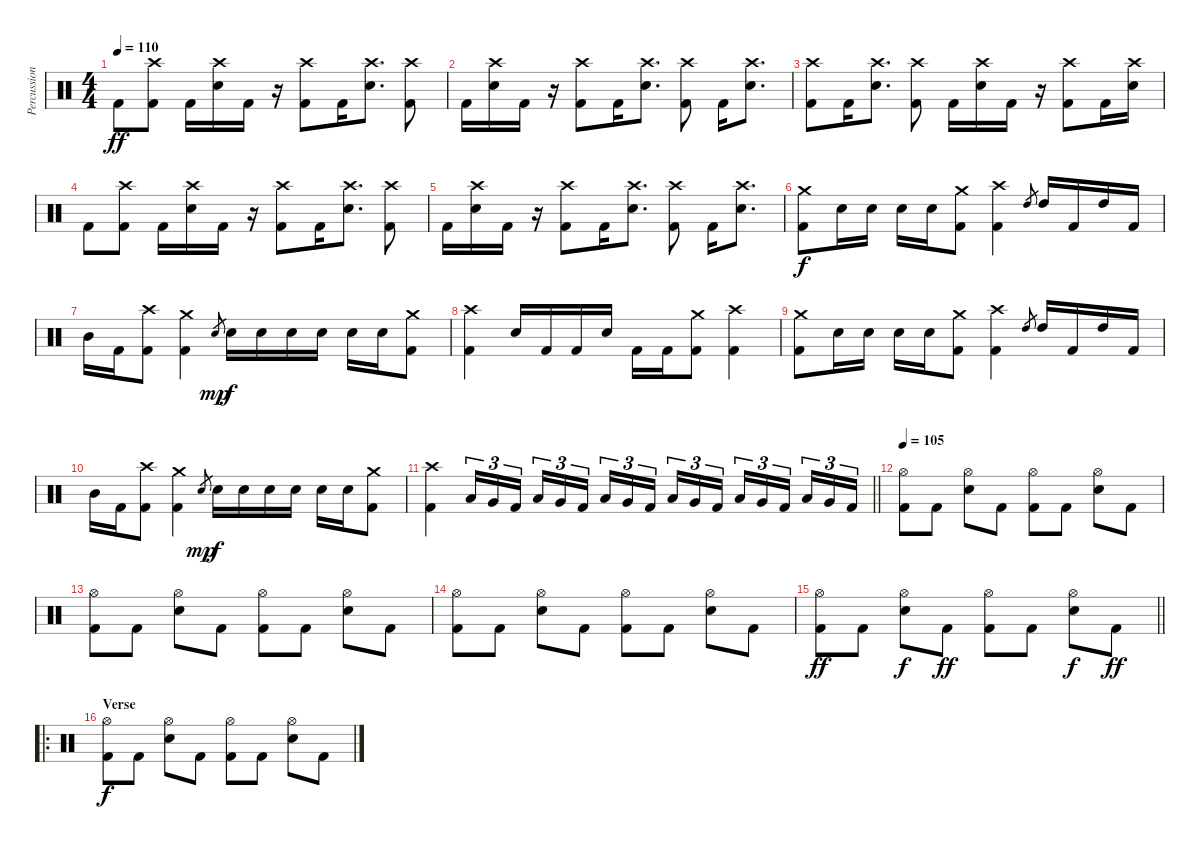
\track ("Percussions" "Percussion") {instrument percussion}
\staff {score}
\articulation defaults
\ts (4 4)
\tempo 110
\clef neutral
\ks c "Kick (hit) 2".8{dy ff}
("Crash high (hit)" "Kick (hit) 2").8 "Kick (hit) 2".16 ("Crash high (hit)" "Electric Snare (hit)").16 "Kick (hit) 2".16 r.16 ("Crash high (hit)" "Kick (hit) 2").8 "Kick (hit) 2".16 ("Crash high (hit)" "Electric Snare (hit)").8{d} ("Crash high (hit)" "Kick (hit) 2").8 |
"Kick (hit) 2".16 ("Crash high (hit)" "Electric Snare (hit)").16 "Kick (hit) 2".16 r.16 ("Crash high (hit)" "Kick (hit) 2").8 "Kick (hit) 2".16 ("Crash high (hit)" "Electric Snare (hit)").8{d} ("Crash high (hit)" "Kick (hit) 2").8 "Kick (hit) 2".16 ("Crash high (hit)" "Electric Snare (hit)").8{d} |
("Crash high (hit)" "Kick (hit) 2").8 "Kick (hit) 2".16 ("Crash high (hit)" "Electric Snare (hit)").8{d} ("Crash high (hit)" "Kick (hit) 2").8 "Kick (hit) 2".16 ("Crash high (hit)" "Electric Snare (hit)").16 "Kick (hit) 2".16 r.16 ("Crash high (hit)" "Kick (hit) 2").8 "Kick (hit) 2".16 ("Crash high (hit)" "Electric Snare (hit)").16 |
"Kick (hit) 2".8 ("Crash high (hit)" "Kick (hit) 2").8 "Kick (hit) 2".16 ("Crash high (hit)" "Electric Snare (hit)").16 "Kick (hit) 2".16 r.16 ("Crash high (hit)" "Kick (hit) 2").8 "Kick (hit) 2".16 ("Crash high (hit)" "Electric Snare (hit)").8{d} ("Crash high (hit)" "Kick (hit) 2").8 |
"Kick (hit) 2".16 ("Crash high (hit)" "Electric Snare (hit)").16 "Kick (hit) 2".16 r.16 ("Crash high (hit)" "Kick (hit) 2").8 "Kick (hit) 2".16 ("Crash high (hit)" "Electric Snare (hit)").8{d} ("Crash high (hit)" "Kick (hit) 2").8 "Kick (hit) 2".16 ("Crash high (hit)" "Electric Snare (hit)").8{d} |
("Crash medium (hit)" "Kick (hit) 2").8{dy f} "Electric Snare (hit)".16 "Electric Snare (hit)".16 "Electric Snare (hit)".16 "Electric Snare (hit)".16 ("Crash medium (hit)" "Kick (hit) 2").8 ("Crash high (hit)" "Kick (hit) 2").4 "High Tom (hit)".8{gr} "High Tom (hit)".16 "Kick (hit) 2".16 "High Tom (hit)".16 "Kick (hit) 2".16 |
"Mid Tom (hit)".16 "Kick (hit) 2".16 ("Crash high (hit)" "Kick (hit) 2").8 ("Crash medium (hit)" "Kick (hit) 2").4 "Electric Snare (hit)".8{gr dy mp} "Electric Snare (hit)".16{dy f} "Electric Snare (hit)".16 "Electric Snare (hit)".16 "Electric Snare (hit)".16 "Electric Snare (hit)".16 "Electric Snare (hit)".16 ("Crash medium (hit)" "Kick (hit) 2").8 |
("Crash high (hit)" "Kick (hit) 2").4 "Electric Snare (hit)".16 "Kick (hit) 2".16 "Kick (hit) 2".16 "Electric Snare (hit)".16 "Kick (hit) 2".16 "Kick (hit) 2".16 ("Crash medium (hit)" "Kick (hit) 2").8 ("Crash high (hit)" "Kick (hit) 2").4 |
("Crash medium (hit)" "Kick (hit) 2").8 "Electric Snare (hit)".16 "Electric Snare (hit)".16 "Electric Snare (hit)".16 "Electric Snare (hit)".16 ("Crash medium (hit)" "Kick (hit) 2").8 ("Crash high (hit)" "Kick (hit) 2").4 "High Tom (hit)".8{gr} "High Tom (hit)".16 "Kick (hit) 2".16 "High Tom (hit)".16 "Kick (hit) 2".16 |
"Mid Tom (hit)".16 "Kick (hit) 2".16 ("Crash high (hit)" "Kick (hit) 2").8 ("Crash medium (hit)" "Kick (hit) 2").4 "Electric Snare (hit)".8{gr dy mp} "Electric Snare (hit)".16{dy f} "Electric Snare (hit)".16 "Electric Snare (hit)".16 "Electric Snare (hit)".16 "Electric Snare (hit)".16 "Electric Snare (hit)".16 ("Crash medium (hit)" "Kick (hit) 2").8 |
\barLineRight lightlight
("Crash high (hit)" "Kick (hit) 2").4 "Low Tom (hit)".16{tu (3 2)} "Very Low Tom (hit)".16{tu (3 2)} "Kick (hit) 2".16{tu (3 2) beam splitsecondary} "Low Tom (hit)".16{tu (3 2)} "Very Low Tom (hit)".16{tu (3 2)} "Kick (hit) 2".16{tu (3 2)} "Low Tom (hit)".16{tu (3 2)} "Very Low Tom (hit)".16{tu (3 2)} "Kick (hit) 2".16{tu (3 2) beam splitsecondary} "Low Tom (hit)".16{tu (3 2)} "Very Low Tom (hit)".16{tu (3 2)} "Kick (hit) 2".16{tu (3 2)} "Low Tom (hit)".16{tu (3 2)} "Very Low Tom (hit)".16{tu (3 2)} "Kick (hit) 2".16{tu (3 2) beam splitsecondary} "Low Tom (hit)".16{tu (3 2)} "Very Low Tom (hit)".16{tu (3 2)} "Kick (hit) 2".16{tu (3 2)} |
\tempo 105
("Hi-Hat (open)" "Kick (hit) 2").8 "Kick (hit) 2".8 ("Hi-Hat (open)" "Electric Snare (hit)").8 "Kick (hit) 2".8 ("Hi-Hat (open)" "Kick (hit) 2").8 "Kick (hit) 2".8 ("Hi-Hat (open)" "Electric Snare (hit)").8 "Kick (hit) 2".8 |
("Hi-Hat (open)" "Kick (hit) 2").8 "Kick (hit) 2".8 ("Hi-Hat (open)" "Electric Snare (hit)").8 "Kick (hit) 2".8 ("Hi-Hat (open)" "Kick (hit) 2").8 "Kick (hit) 2".8 ("Hi-Hat (open)" "Electric Snare (hit)").8 "Kick (hit) 2".8 |
("Hi-Hat (open)" "Kick (hit) 2").8 "Kick (hit) 2".8 ("Hi-Hat (open)" "Electric Snare (hit)").8 "Kick (hit) 2".8 ("Hi-Hat (open)" "Kick (hit) 2").8 "Kick (hit) 2".8 ("Hi-Hat (open)" "Electric Snare (hit)").8 "Kick (hit) 2".8 |
\barLineRight lightlight
("Hi-Hat (open)" "Kick (hit) 2").8{dy ff} "Kick (hit) 2".8 ("Hi-Hat (open)" "Electric Snare (hit)").8{dy f} "Kick (hit) 2".8{dy ff} ("Hi-Hat (open)" "Kick (hit) 2").8 "Kick (hit) 2".8 ("Hi-Hat (open)" "Electric Snare (hit)").8{dy f} "Kick (hit) 2".8{dy ff} |
\ro
\section ("" "Verse")
("Hi-Hat (open)" "Kick (hit) 2").8{dy f} "Kick (hit) 2".8 ("Hi-Hat (open)" "Electric Snare (hit)").8 "Kick (hit) 2".8 ("Hi-Hat (open)" "Kick (hit) 2").8 "Kick (hit) 2".8 ("Hi-Hat (open)" "Electric Snare (hit)").8 "Kick (hit) 2".8
